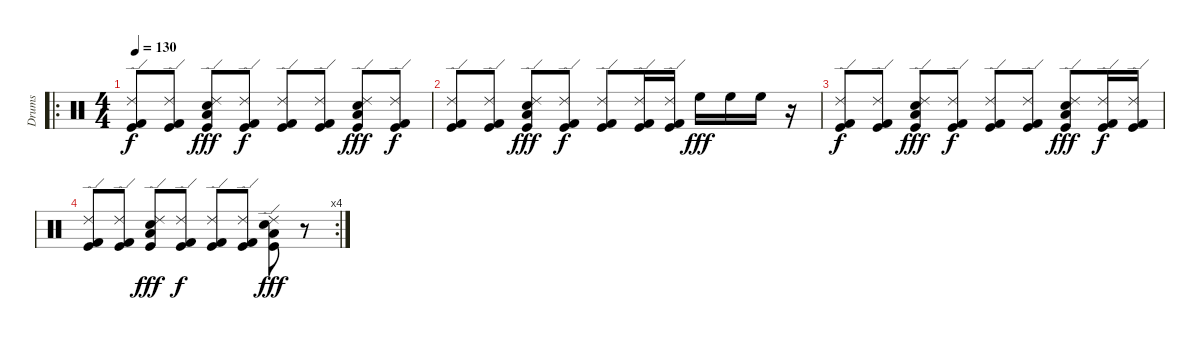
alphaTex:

\track ("Drums" "Drums") {instrument percussion}
\staff {score}
\articulation defaults
\ro
\ts (4 4)
\tempo 130
\clef neutral
\ks c
("Ride (edge) 2" "Kick (hit)" "Kick (hit) 2").8{dy f} ("Ride (edge) 2" "Kick (hit)" "Kick (hit) 2").8 ("Ride (edge) 2" "Low Floor Tom (hit)" "Kick (hit)" "Snare (hit) 2").8{dy fff} ("Ride (edge) 2" "Kick (hit)" "Kick (hit) 2").8{dy f} ("Ride (edge) 2" "Kick (hit)" "Kick (hit) 2").8 ("Ride (edge) 2" "Kick (hit)" "Kick (hit) 2").8 ("Ride (edge) 2" "Low Floor Tom (hit)" "Kick (hit)" "Snare (hit) 2").8{dy fff} ("Ride (edge) 2" "Kick (hit)" "Kick (hit) 2").8{dy f} |
("Ride (edge) 2" "Kick (hit)" "Kick (hit) 2").8 ("Ride (edge) 2" "Kick (hit)" "Kick (hit) 2").8 ("Ride (edge) 2" "Low Floor Tom (hit)" "Kick (hit)" "Snare (hit) 2").8{dy fff} ("Ride (edge) 2" "Kick (hit)" "Kick (hit) 2").8{dy f} ("Ride (edge) 2" "Kick (hit)" "Kick (hit) 2").8 ("Ride (edge) 2" "Kick (hit)" "Kick (hit) 2").16 ("Ride (edge) 2" "Kick (hit)" "Kick (hit) 2").16 "High Floor Tom (hit)".16{dy fff} "High Floor Tom (hit)".16 "High Floor Tom (hit)".16 r.16 |
("Ride (edge) 2" "Kick (hit)" "Kick (hit) 2").8{dy f} ("Ride (edge) 2" "Kick (hit)" "Kick (hit) 2").8 ("Ride (edge) 2" "Low Floor Tom (hit)" "Kick (hit)" "Snare (hit) 2").8{dy fff} ("Ride (edge) 2" "Kick (hit)" "Kick (hit) 2").8{dy f} ("Ride (edge) 2" "Kick (hit)" "Kick (hit) 2").8 ("Ride (edge) 2" "Kick (hit)" "Kick (hit) 2").8 ("Ride (edge) 2" "Low Floor Tom (hit)" "Kick (hit)" "Snare (hit) 2").8{dy fff} ("Ride (edge) 2" "Kick (hit)" "Kick (hit) 2").16{dy f} ("Ride (edge) 2" "Kick (hit)" "Kick (hit) 2").16 |
\rc 4
("Ride (edge) 2" "Kick (hit)" "Kick (hit) 2").8 ("Ride (edge) 2" "Kick (hit)" "Kick (hit) 2").8 ("Ride (edge) 2" "Low Floor Tom (hit)" "Kick (hit)" "Snare (hit) 2").8{dy fff} ("Ride (edge) 2" "Kick (hit)" "Kick (hit) 2").8{dy f} ("Ride (edge) 2" "Kick (hit)" "Kick (hit) 2").8 ("Ride (edge) 2" "Kick (hit)" "Kick (hit) 2").8 ("Ride (edge) 2" "Low Floor Tom (hit)" "Kick (hit)" "Snare (hit) 2").8{dy fff} r.8
